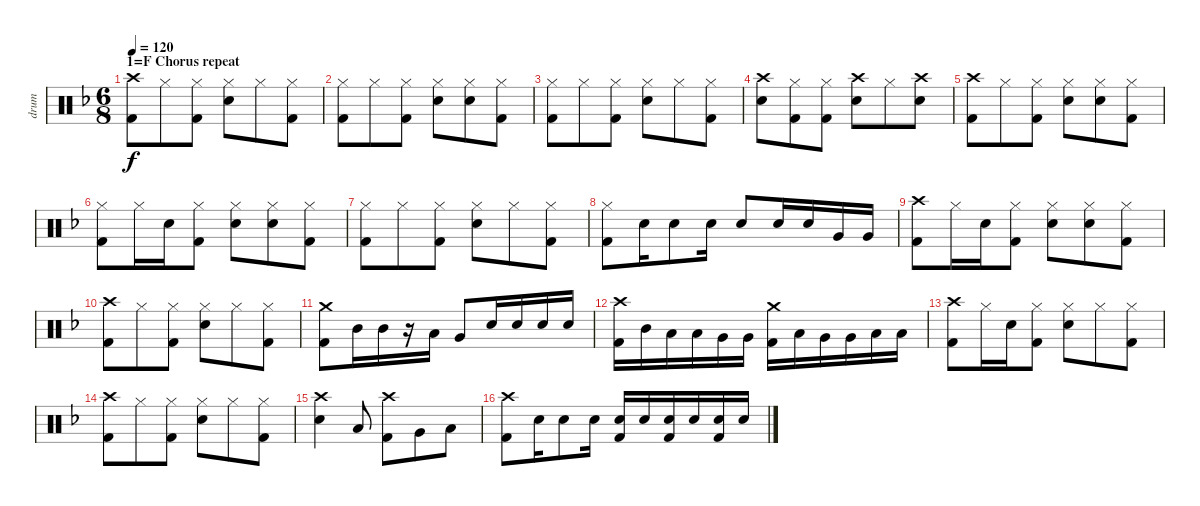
\track ("drum" "drum") {instrument percussion}
\staff {score}
\articulation defaults
\ts (6 8)
\section ("" "1=F Chorus repeat")
\tempo 120
\clef neutral
\ks f
("Crash high (hit)" "Kick (hit) 2").8{dy f} "Hi-Hat (closed)".8 ("Hi-Hat (closed)" "Kick (hit) 2").8 ("Hi-Hat (closed)" "Snare (hit) 2").8 "Hi-Hat (closed)".8 ("Hi-Hat (closed)" "Kick (hit) 2").8 |
("Hi-Hat (closed)" "Kick (hit) 2").8 "Hi-Hat (closed)".8 ("Hi-Hat (closed)" "Kick (hit) 2").8 ("Hi-Hat (closed)" "Snare (hit) 2").8 ("Hi-Hat (closed)" "Snare (hit) 2").8 ("Hi-Hat (closed)" "Kick (hit) 2").8 |
("Hi-Hat (closed)" "Kick (hit) 2").8 "Hi-Hat (closed)".8 ("Hi-Hat (closed)" "Kick (hit) 2").8 ("Hi-Hat (closed)" "Snare (hit) 2").8 "Hi-Hat (closed)".8 ("Hi-Hat (closed)" "Kick (hit) 2").8 |
("Crash high (hit)" "Snare (hit) 2").8 ("Hi-Hat (closed)" "Kick (hit) 2").8 ("Hi-Hat (closed)" "Kick (hit) 2").8 ("Crash high (hit)" "Snare (hit) 2").8 "Hi-Hat (closed)".8 ("Crash high (hit)" "Snare (hit) 2").8 |
("Crash high (hit)" "Kick (hit) 2").8 "Hi-Hat (closed)".8 ("Hi-Hat (closed)" "Kick (hit) 2").8 ("Hi-Hat (closed)" "Snare (hit) 2").8 ("Hi-Hat (closed)" "Snare (hit) 2").8 ("Hi-Hat (closed)" "Kick (hit) 2").8 |
("Hi-Hat (closed)" "Kick (hit) 2").8 "Hi-Hat (closed)".16 "Snare (hit) 2".16 ("Hi-Hat (closed)" "Kick (hit) 2").8 ("Hi-Hat (closed)" "Snare (hit) 2").8 ("Hi-Hat (closed)" "Snare (hit) 2").8 ("Hi-Hat (closed)" "Kick (hit) 2").8 |
("Hi-Hat (closed)" "Kick (hit) 2").8 "Hi-Hat (closed)".8 ("Hi-Hat (closed)" "Kick (hit) 2").8 ("Hi-Hat (closed)" "Snare (hit) 2").8 "Hi-Hat (closed)".8 ("Hi-Hat (closed)" "Kick (hit) 2").8 |
("Hi-Hat (closed)" "Kick (hit) 2").8 "Snare (hit) 2".16 "Snare (hit) 2".8 "Snare (hit) 2".16 "Snare (hit) 2".8 "Snare (hit) 2".16 "Snare (hit) 2".16 "Very Low Tom (hit)".16 "Very Low Tom (hit)".16 |
("Crash high (hit)" "Kick (hit) 2").8 "Hi-Hat (closed)".16 "Snare (hit) 2".16 ("Hi-Hat (closed)" "Kick (hit) 2").8 ("Hi-Hat (closed)" "Snare (hit) 2").8 ("Hi-Hat (closed)" "Snare (hit) 2").8 ("Hi-Hat (closed)" "Kick (hit) 2").8 |
("Crash high (hit)" "Kick (hit) 2").8 "Hi-Hat (closed)".8 ("Hi-Hat (closed)" "Kick (hit) 2").8 ("Hi-Hat (closed)" "Snare (hit) 2").8 "Hi-Hat (closed)".8 ("Hi-Hat (closed)" "Kick (hit) 2").8 |
("Crash medium (hit)" "Kick (hit) 2").8 "Mid Tom (hit)".16 "Mid Tom (hit)".16 r.16 "Low Tom (hit)".16 "Very Low Tom (hit)".8 "Snare (hit) 2".16 "Snare (hit) 2".16 "Snare (hit) 2".16 "Snare (hit) 2".16 |
("Crash high (hit)" "Kick (hit) 2").16 "Mid Tom (hit)".16 "Low Tom (hit)".16 "Low Tom (hit)".16 "Very Low Tom (hit)".16 "Very Low Tom (hit)".16 ("Crash medium (hit)" "Kick (hit) 2").16 "Low Tom (hit)".16 "Very Low Tom (hit)".16 "Very Low Tom (hit)".16 "Low Floor Tom (hit)".16 "Low Floor Tom (hit)".16 |
("Crash high (hit)" "Kick (hit) 2").8 "Hi-Hat (closed)".16 "Snare (hit) 2".16 ("Hi-Hat (closed)" "Kick (hit) 2").8 ("Hi-Hat (closed)" "Snare (hit) 2").8 "Hi-Hat (closed)".8 ("Hi-Hat (closed)" "Kick (hit) 2").8 |
("Crash high (hit)" "Kick (hit) 2").8 "Hi-Hat (closed)".8 ("Hi-Hat (closed)" "Kick (hit) 2").8 ("Hi-Hat (closed)" "Snare (hit) 2").8 "Hi-Hat (closed)".8 ("Hi-Hat (closed)" "Kick (hit) 2").8 |
("Crash high (hit)" "Snare (hit) 2").4 "Low Floor Tom (hit)".8 ("Crash high (hit)" "Kick (hit) 2").8 "Very Low Tom (hit)".8 "Low Floor Tom (hit)".8 |
("Crash high (hit)" "Kick (hit) 2").8 "Snare (hit) 2".16 "Snare (hit) 2".8 "Snare (hit) 2".16 ("Snare (hit) 2" "Kick (hit) 2").16 "Snare (hit) 2".16 ("Snare (hit) 2" "Kick (hit) 2").16 "Snare (hit) 2".16 ("Snare (hit) 2" "Kick (hit) 2").16 "Snare (hit) 2".16
